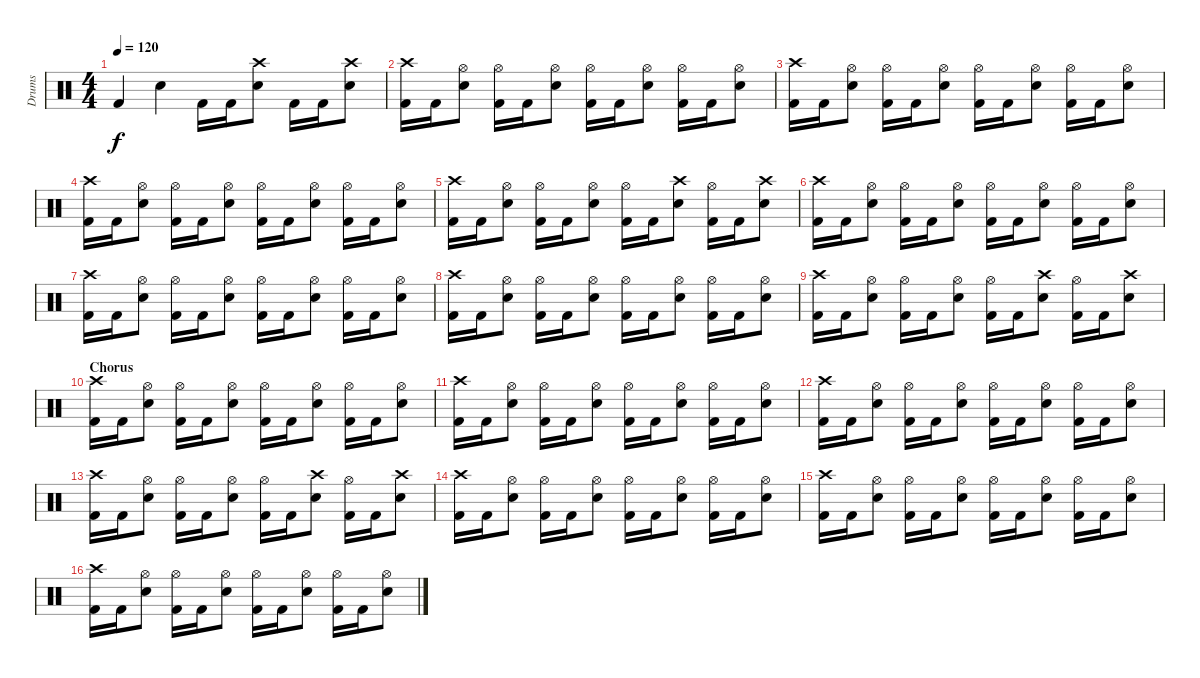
\track ("Drums" "Drums") {instrument percussion}
\staff {score}
\articulation defaults
\ts (4 4)
\tempo 120
\clef neutral
\ks c "Kick (hit) 2".4{dy f} "Electric Snare (hit)".4 "Kick (hit) 2".16 "Kick (hit) 2".16
("Crash high (hit)" "Electric Snare (hit)").8 "Kick (hit) 2".16 "Kick (hit) 2".16 ("Crash high (hit)" "Electric Snare (hit)").8 |
("Crash high (hit)" "Kick (hit) 2").16 "Kick (hit) 2".16 ("Hi-Hat (open)" "Electric Snare (hit)").8 ("Hi-Hat (open)" "Kick (hit) 2").16 "Kick (hit) 2".16 ("Hi-Hat (open)" "Electric Snare (hit)").8 ("Hi-Hat (open)" "Kick (hit) 2").16 "Kick (hit) 2".16 ("Hi-Hat (open)" "Electric Snare (hit)").8 ("Hi-Hat (open)" "Kick (hit) 2").16 "Kick (hit) 2".16 ("Hi-Hat (open)" "Electric Snare (hit)").8 |
("Crash high (hit)" "Kick (hit) 2").16 "Kick (hit) 2".16 ("Hi-Hat (open)" "Electric Snare (hit)").8 ("Hi-Hat (open)" "Kick (hit) 2").16 "Kick (hit) 2".16 ("Hi-Hat (open)" "Electric Snare (hit)").8 ("Hi-Hat (open)" "Kick (hit) 2").16 "Kick (hit) 2".16 ("Hi-Hat (open)" "Electric Snare (hit)").8 ("Hi-Hat (open)" "Kick (hit) 2").16 "Kick (hit) 2".16 ("Hi-Hat (open)" "Electric Snare (hit)").8 |
("Crash high (hit)" "Kick (hit) 2").16 "Kick (hit) 2".16 ("Hi-Hat (open)" "Electric Snare (hit)").8 ("Hi-Hat (open)" "Kick (hit) 2").16 "Kick (hit) 2".16 ("Hi-Hat (open)" "Electric Snare (hit)").8 ("Hi-Hat (open)" "Kick (hit) 2").16 "Kick (hit) 2".16 ("Hi-Hat (open)" "Electric Snare (hit)").8 ("Hi-Hat (open)" "Kick (hit) 2").16 "Kick (hit) 2".16 ("Hi-Hat (open)" "Electric Snare (hit)").8 |
("Crash high (hit)" "Kick (hit) 2").16 "Kick (hit) 2".16 ("Hi-Hat (open)" "Electric Snare (hit)").8 ("Hi-Hat (open)" "Kick (hit) 2").16 "Kick (hit) 2".16 ("Hi-Hat (open)" "Electric Snare (hit)").8 ("Hi-Hat (open)" "Kick (hit) 2").16 "Kick (hit) 2".16 ("Crash high (hit)" "Electric Snare (hit)").8 ("Hi-Hat (open)" "Kick (hit) 2").16 "Kick (hit) 2".16 ("Crash high (hit)" "Electric Snare (hit)").8 |
("Crash high (hit)" "Kick (hit) 2").16 "Kick (hit) 2".16 ("Hi-Hat (open)" "Electric Snare (hit)").8 ("Hi-Hat (open)" "Kick (hit) 2").16 "Kick (hit) 2".16 ("Hi-Hat (open)" "Electric Snare (hit)").8 ("Hi-Hat (open)" "Kick (hit) 2").16 "Kick (hit) 2".16 ("Hi-Hat (open)" "Electric Snare (hit)").8 ("Hi-Hat (open)" "Kick (hit) 2").16 "Kick (hit) 2".16 ("Hi-Hat (open)" "Electric Snare (hit)").8 |
("Crash high (hit)" "Kick (hit) 2").16 "Kick (hit) 2".16 ("Hi-Hat (open)" "Electric Snare (hit)").8 ("Hi-Hat (open)" "Kick (hit) 2").16 "Kick (hit) 2".16 ("Hi-Hat (open)" "Electric Snare (hit)").8 ("Hi-Hat (open)" "Kick (hit) 2").16 "Kick (hit) 2".16 ("Hi-Hat (open)" "Electric Snare (hit)").8 ("Hi-Hat (open)" "Kick (hit) 2").16 "Kick (hit) 2".16 ("Hi-Hat (open)" "Electric Snare (hit)").8 |
("Crash high (hit)" "Kick (hit) 2").16 "Kick (hit) 2".16 ("Hi-Hat (open)" "Electric Snare (hit)").8 ("Hi-Hat (open)" "Kick (hit) 2").16 "Kick (hit) 2".16 ("Hi-Hat (open)" "Electric Snare (hit)").8 ("Hi-Hat (open)" "Kick (hit) 2").16 "Kick (hit) 2".16 ("Hi-Hat (open)" "Electric Snare (hit)").8 ("Hi-Hat (open)" "Kick (hit) 2").16 "Kick (hit) 2".16 ("Hi-Hat (open)" "Electric Snare (hit)").8 |
("Crash high (hit)" "Kick (hit) 2").16 "Kick (hit) 2".16 ("Hi-Hat (open)" "Electric Snare (hit)").8 ("Hi-Hat (open)" "Kick (hit) 2").16 "Kick (hit) 2".16 ("Hi-Hat (open)" "Electric Snare (hit)").8 ("Hi-Hat (open)" "Kick (hit) 2").16 "Kick (hit) 2".16 ("Crash high (hit)" "Electric Snare (hit)").8 ("Hi-Hat (open)" "Kick (hit) 2").16 "Kick (hit) 2".16 ("Crash high (hit)" "Electric Snare (hit)").8 |
\section ("" "Chorus")
("Crash high (hit)" "Kick (hit) 2").16 "Kick (hit) 2".16 ("Hi-Hat (open)" "Electric Snare (hit)").8 ("Hi-Hat (open)" "Kick (hit) 2").16 "Kick (hit) 2".16 ("Hi-Hat (open)" "Electric Snare (hit)").8 ("Hi-Hat (open)" "Kick (hit) 2").16 "Kick (hit) 2".16 ("Hi-Hat (open)" "Electric Snare (hit)").8 ("Hi-Hat (open)" "Kick (hit) 2").16 "Kick (hit) 2".16 ("Hi-Hat (open)" "Electric Snare (hit)").8 |
("Crash high (hit)" "Kick (hit) 2").16 "Kick (hit) 2".16 ("Hi-Hat (open)" "Electric Snare (hit)").8 ("Hi-Hat (open)" "Kick (hit) 2").16 "Kick (hit) 2".16 ("Hi-Hat (open)" "Electric Snare (hit)").8 ("Hi-Hat (open)" "Kick (hit) 2").16 "Kick (hit) 2".16 ("Hi-Hat (open)" "Electric Snare (hit)").8 ("Hi-Hat (open)" "Kick (hit) 2").16 "Kick (hit) 2".16 ("Hi-Hat (open)" "Electric Snare (hit)").8 |
("Crash high (hit)" "Kick (hit) 2").16 "Kick (hit) 2".16 ("Hi-Hat (open)" "Electric Snare (hit)").8 ("Hi-Hat (open)" "Kick (hit) 2").16 "Kick (hit) 2".16 ("Hi-Hat (open)" "Electric Snare (hit)").8 ("Hi-Hat (open)" "Kick (hit) 2").16 "Kick (hit) 2".16 ("Hi-Hat (open)" "Electric Snare (hit)").8 ("Hi-Hat (open)" "Kick (hit) 2").16 "Kick (hit) 2".16 ("Hi-Hat (open)" "Electric Snare (hit)").8 |
("Crash high (hit)" "Kick (hit) 2").16 "Kick (hit) 2".16 ("Hi-Hat (open)" "Electric Snare (hit)").8 ("Hi-Hat (open)" "Kick (hit) 2").16 "Kick (hit) 2".16 ("Hi-Hat (open)" "Electric Snare (hit)").8 ("Hi-Hat (open)" "Kick (hit) 2").16 "Kick (hit) 2".16 ("Crash high (hit)" "Electric Snare (hit)").8 ("Hi-Hat (open)" "Kick (hit) 2").16 "Kick (hit) 2".16 ("Crash high (hit)" "Electric Snare (hit)").8 |
("Crash high (hit)" "Kick (hit) 2").16 "Kick (hit) 2".16 ("Hi-Hat (open)" "Electric Snare (hit)").8 ("Hi-Hat (open)" "Kick (hit) 2").16 "Kick (hit) 2".16 ("Hi-Hat (open)" "Electric Snare (hit)").8 ("Hi-Hat (open)" "Kick (hit) 2").16 "Kick (hit) 2".16 ("Hi-Hat (open)" "Electric Snare (hit)").8 ("Hi-Hat (open)" "Kick (hit) 2").16 "Kick (hit) 2".16 ("Hi-Hat (open)" "Electric Snare (hit)").8 |
("Crash high (hit)" "Kick (hit) 2").16 "Kick (hit) 2".16 ("Hi-Hat (open)" "Electric Snare (hit)").8 ("Hi-Hat (open)" "Kick (hit) 2").16 "Kick (hit) 2".16 ("Hi-Hat (open)" "Electric Snare (hit)").8 ("Hi-Hat (open)" "Kick (hit) 2").16 "Kick (hit) 2".16 ("Hi-Hat (open)" "Electric Snare (hit)").8 ("Hi-Hat (open)" "Kick (hit) 2").16 "Kick (hit) 2".16 ("Hi-Hat (open)" "Electric Snare (hit)").8 |
("Crash high (hit)" "Kick (hit) 2").16 "Kick (hit) 2".16 ("Hi-Hat (open)" "Electric Snare (hit)").8 ("Hi-Hat (open)" "Kick (hit) 2").16 "Kick (hit) 2".16 ("Hi-Hat (open)" "Electric Snare (hit)").8 ("Hi-Hat (open)" "Kick (hit) 2").16 "Kick (hit) 2".16 ("Hi-Hat (open)" "Electric Snare (hit)").8 ("Hi-Hat (open)" "Kick (hit) 2").16 "Kick (hit) 2".16 ("Hi-Hat (open)" "Electric Snare (hit)").8
